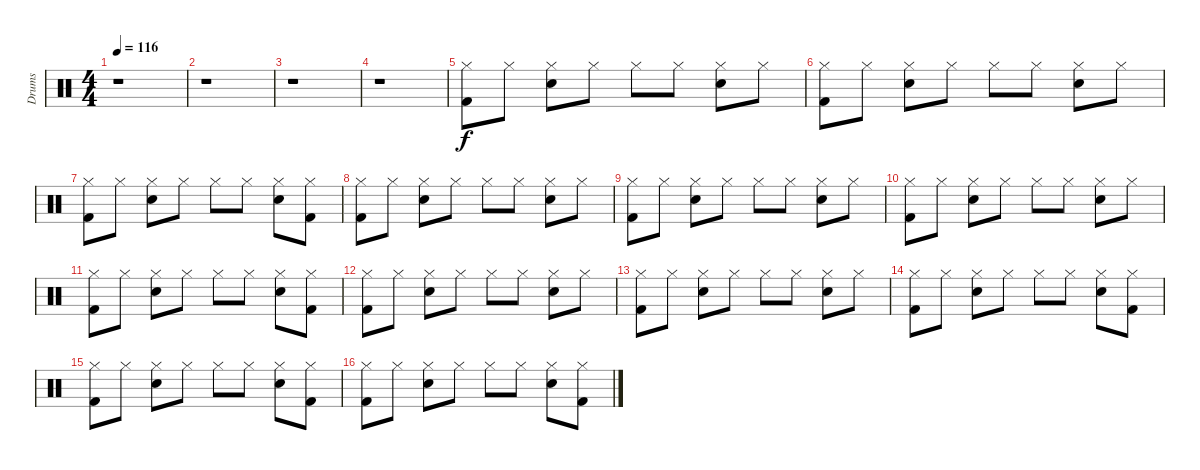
\track ("Drums" "Drums") {instrument percussion}
\staff {score}
\articulation defaults
\ts (4 4)
\tempo 116
\clef neutral
\ks c
r.1{dy f} |
r.1 |
r.1 |
r.1 |
("Kick (hit) 2" "Hi-Hat (closed)").8 "Hi-Hat (closed)".8 ("Snare (hit) 2" "Hi-Hat (closed)").8 "Hi-Hat (closed)".8 "Hi-Hat (closed)".8 "Hi-Hat (closed)".8 ("Snare (hit) 2" "Hi-Hat (closed)").8 "Hi-Hat (closed)".8 |
("Kick (hit) 2" "Hi-Hat (closed)").8 "Hi-Hat (closed)".8 ("Snare (hit) 2" "Hi-Hat (closed)").8 "Hi-Hat (closed)".8 "Hi-Hat (closed)".8 "Hi-Hat (closed)".8 ("Snare (hit) 2" "Hi-Hat (closed)").8 "Hi-Hat (closed)".8 |
("Kick (hit) 2" "Hi-Hat (closed)").8 "Hi-Hat (closed)".8 ("Snare (hit) 2" "Hi-Hat (closed)").8 "Hi-Hat (closed)".8 "Hi-Hat (closed)".8 "Hi-Hat (closed)".8 ("Snare (hit) 2" "Hi-Hat (closed)").8 ("Kick (hit) 2" "Hi-Hat (closed)").8 |
("Kick (hit) 2" "Hi-Hat (closed)").8 "Hi-Hat (closed)".8 ("Snare (hit) 2" "Hi-Hat (closed)").8 "Hi-Hat (closed)".8 "Hi-Hat (closed)".8 "Hi-Hat (closed)".8 ("Snare (hit) 2" "Hi-Hat (closed)").8 "Hi-Hat (closed)".8 |
("Kick (hit) 2" "Hi-Hat (closed)").8 "Hi-Hat (closed)".8 ("Snare (hit) 2" "Hi-Hat (closed)").8 "Hi-Hat (closed)".8 "Hi-Hat (closed)".8 "Hi-Hat (closed)".8 ("Snare (hit) 2" "Hi-Hat (closed)").8 "Hi-Hat (closed)".8 |
("Kick (hit) 2" "Hi-Hat (closed)").8 "Hi-Hat (closed)".8 ("Snare (hit) 2" "Hi-Hat (closed)").8 "Hi-Hat (closed)".8 "Hi-Hat (closed)".8 "Hi-Hat (closed)".8 ("Snare (hit) 2" "Hi-Hat (closed)").8 "Hi-Hat (closed)".8 |
("Kick (hit) 2" "Hi-Hat (closed)").8 "Hi-Hat (closed)".8 ("Snare (hit) 2" "Hi-Hat (closed)").8 "Hi-Hat (closed)".8 "Hi-Hat (closed)".8 "Hi-Hat (closed)".8 ("Snare (hit) 2" "Hi-Hat (closed)").8 ("Kick (hit) 2" "Hi-Hat (closed)").8 |
("Kick (hit) 2" "Hi-Hat (closed)").8 "Hi-Hat (closed)".8 ("Snare (hit) 2" "Hi-Hat (closed)").8 "Hi-Hat (closed)".8 "Hi-Hat (closed)".8 "Hi-Hat (closed)".8 ("Snare (hit) 2" "Hi-Hat (closed)").8 "Hi-Hat (closed)".8 |
("Kick (hit) 2" "Hi-Hat (closed)").8 "Hi-Hat (closed)".8 ("Snare (hit) 2" "Hi-Hat (closed)").8 "Hi-Hat (closed)".8 "Hi-Hat (closed)".8 "Hi-Hat (closed)".8 ("Snare (hit) 2" "Hi-Hat (closed)").8 "Hi-Hat (closed)".8 |
("Kick (hit) 2" "Hi-Hat (closed)").8 "Hi-Hat (closed)".8 ("Snare (hit) 2" "Hi-Hat (closed)").8 "Hi-Hat (closed)".8 "Hi-Hat (closed)".8 "Hi-Hat (closed)".8 ("Snare (hit) 2" "Hi-Hat (closed)").8 ("Kick (hit) 2" "Hi-Hat (closed)").8 |
("Kick (hit) 2" "Hi-Hat (closed)").8 "Hi-Hat (closed)".8 ("Snare (hit) 2" "Hi-Hat (closed)").8 "Hi-Hat (closed)".8 "Hi-Hat (closed)".8 "Hi-Hat (closed)".8 ("Snare (hit) 2" "Hi-Hat (closed)").8 ("Kick (hit) 2" "Hi-Hat (closed)").8 |
("Kick (hit) 2" "Hi-Hat (closed)").8 "Hi-Hat (closed)".8 ("Snare (hit) 2" "Hi-Hat (closed)").8 "Hi-Hat (closed)".8 "Hi-Hat (closed)".8 "Hi-Hat (closed)".8 ("Snare (hit) 2" "Hi-Hat (closed)").8 ("Kick (hit) 2" "Hi-Hat (closed)").8
